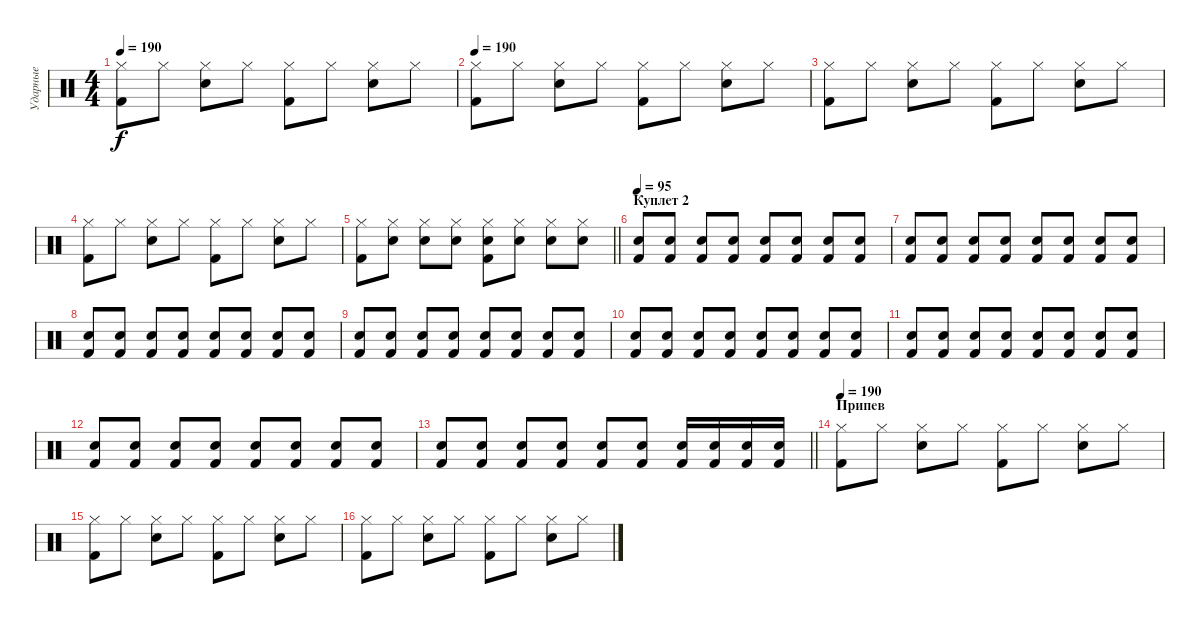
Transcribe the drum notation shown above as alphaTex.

\track ("Ударные" "Ударные") {instrument percussion}
\staff {score}
\articulation defaults
\ts (4 4)
\tempo 190
\clef neutral
\ks c
("Hi-Hat (closed)" "Kick (hit) 2").8{dy f} "Hi-Hat (closed)".8 ("Hi-Hat (closed)" "Snare (hit) 2").8 "Hi-Hat (closed)".8 ("Hi-Hat (closed)" "Kick (hit) 2").8 "Hi-Hat (closed)".8 ("Hi-Hat (closed)" "Snare (hit) 2").8 "Hi-Hat (closed)".8 |
\tempo 190
("Hi-Hat (closed)" "Kick (hit) 2").8 "Hi-Hat (closed)".8 ("Hi-Hat (closed)" "Snare (hit) 2").8 "Hi-Hat (closed)".8 ("Hi-Hat (closed)" "Kick (hit) 2").8 "Hi-Hat (closed)".8 ("Hi-Hat (closed)" "Snare (hit) 2").8 "Hi-Hat (closed)".8 |
("Hi-Hat (closed)" "Kick (hit) 2").8 "Hi-Hat (closed)".8 ("Hi-Hat (closed)" "Snare (hit) 2").8 "Hi-Hat (closed)".8 ("Hi-Hat (closed)" "Kick (hit) 2").8 "Hi-Hat (closed)".8 ("Hi-Hat (closed)" "Snare (hit) 2").8 "Hi-Hat (closed)".8 |
("Hi-Hat (closed)" "Kick (hit) 2").8 "Hi-Hat (closed)".8 ("Hi-Hat (closed)" "Snare (hit) 2").8 "Hi-Hat (closed)".8 ("Hi-Hat (closed)" "Kick (hit) 2").8 "Hi-Hat (closed)".8 ("Hi-Hat (closed)" "Snare (hit) 2").8 "Hi-Hat (closed)".8 |
\barLineRight lightlight
("Hi-Hat (closed)" "Kick (hit) 2").8 ("Hi-Hat (closed)" "Snare (hit) 2").8 ("Hi-Hat (closed)" "Snare (hit) 2").8 ("Hi-Hat (closed)" "Snare (hit) 2").8 ("Hi-Hat (closed)" "Snare (hit) 2" "Kick (hit) 2").8 ("Hi-Hat (closed)" "Snare (hit) 2").8 ("Hi-Hat (closed)" "Snare (hit) 2").8 ("Hi-Hat (closed)" "Snare (hit) 2").8 |
\section ("" "Куплет 2")
\tempo 95
("Snare (hit) 2" "Kick (hit) 2").8 ("Snare (hit) 2" "Kick (hit) 2").8 ("Snare (hit) 2" "Kick (hit) 2").8 ("Snare (hit) 2" "Kick (hit) 2").8 ("Snare (hit) 2" "Kick (hit) 2").8 ("Snare (hit) 2" "Kick (hit) 2").8 ("Snare (hit) 2" "Kick (hit) 2").8 ("Snare (hit) 2" "Kick (hit) 2").8 |
("Snare (hit) 2" "Kick (hit) 2").8 ("Snare (hit) 2" "Kick (hit) 2").8 ("Snare (hit) 2" "Kick (hit) 2").8 ("Snare (hit) 2" "Kick (hit) 2").8 ("Snare (hit) 2" "Kick (hit) 2").8 ("Snare (hit) 2" "Kick (hit) 2").8 ("Snare (hit) 2" "Kick (hit) 2").8 ("Snare (hit) 2" "Kick (hit) 2").8 |
("Snare (hit) 2" "Kick (hit) 2").8 ("Snare (hit) 2" "Kick (hit) 2").8 ("Snare (hit) 2" "Kick (hit) 2").8 ("Snare (hit) 2" "Kick (hit) 2").8 ("Snare (hit) 2" "Kick (hit) 2").8 ("Snare (hit) 2" "Kick (hit) 2").8 ("Snare (hit) 2" "Kick (hit) 2").8 ("Snare (hit) 2" "Kick (hit) 2").8 |
("Snare (hit) 2" "Kick (hit) 2").8 ("Snare (hit) 2" "Kick (hit) 2").8 ("Snare (hit) 2" "Kick (hit) 2").8 ("Snare (hit) 2" "Kick (hit) 2").8 ("Snare (hit) 2" "Kick (hit) 2").8 ("Snare (hit) 2" "Kick (hit) 2").8 ("Snare (hit) 2" "Kick (hit) 2").8 ("Snare (hit) 2" "Kick (hit) 2").8 |
("Snare (hit) 2" "Kick (hit) 2").8 ("Snare (hit) 2" "Kick (hit) 2").8 ("Snare (hit) 2" "Kick (hit) 2").8 ("Snare (hit) 2" "Kick (hit) 2").8 ("Snare (hit) 2" "Kick (hit) 2").8 ("Snare (hit) 2" "Kick (hit) 2").8 ("Snare (hit) 2" "Kick (hit) 2").8 ("Snare (hit) 2" "Kick (hit) 2").8 |
("Snare (hit) 2" "Kick (hit) 2").8 ("Snare (hit) 2" "Kick (hit) 2").8 ("Snare (hit) 2" "Kick (hit) 2").8 ("Snare (hit) 2" "Kick (hit) 2").8 ("Snare (hit) 2" "Kick (hit) 2").8 ("Snare (hit) 2" "Kick (hit) 2").8 ("Snare (hit) 2" "Kick (hit) 2").8 ("Snare (hit) 2" "Kick (hit) 2").8 |
("Snare (hit) 2" "Kick (hit) 2").8 ("Snare (hit) 2" "Kick (hit) 2").8 ("Snare (hit) 2" "Kick (hit) 2").8 ("Snare (hit) 2" "Kick (hit) 2").8 ("Snare (hit) 2" "Kick (hit) 2").8 ("Snare (hit) 2" "Kick (hit) 2").8 ("Snare (hit) 2" "Kick (hit) 2").8 ("Snare (hit) 2" "Kick (hit) 2").8 |
\barLineRight lightlight
("Snare (hit) 2" "Kick (hit) 2").8 ("Snare (hit) 2" "Kick (hit) 2").8 ("Snare (hit) 2" "Kick (hit) 2").8 ("Snare (hit) 2" "Kick (hit) 2").8 ("Snare (hit) 2" "Kick (hit) 2").8 ("Snare (hit) 2" "Kick (hit) 2").8 ("Snare (hit) 2" "Kick (hit) 2").16 ("Snare (hit) 2" "Kick (hit) 2").16 ("Snare (hit) 2" "Kick (hit) 2").16 ("Snare (hit) 2" "Kick (hit) 2").16 |
\section ("" "Припев")
\tempo 190
("Hi-Hat (closed)" "Kick (hit) 2").8 "Hi-Hat (closed)".8 ("Hi-Hat (closed)" "Snare (hit) 2").8 "Hi-Hat (closed)".8 ("Hi-Hat (closed)" "Kick (hit) 2").8 "Hi-Hat (closed)".8 ("Hi-Hat (closed)" "Snare (hit) 2").8 "Hi-Hat (closed)".8 |
("Hi-Hat (closed)" "Kick (hit) 2").8 "Hi-Hat (closed)".8 ("Hi-Hat (closed)" "Snare (hit) 2").8 "Hi-Hat (closed)".8 ("Hi-Hat (closed)" "Kick (hit) 2").8 "Hi-Hat (closed)".8 ("Hi-Hat (closed)" "Snare (hit) 2").8 "Hi-Hat (closed)".8 |
("Hi-Hat (closed)" "Kick (hit) 2").8 "Hi-Hat (closed)".8 ("Hi-Hat (closed)" "Snare (hit) 2").8 "Hi-Hat (closed)".8 ("Hi-Hat (closed)" "Kick (hit) 2").8 "Hi-Hat (closed)".8 ("Hi-Hat (closed)" "Snare (hit) 2").8 "Hi-Hat (closed)".8
